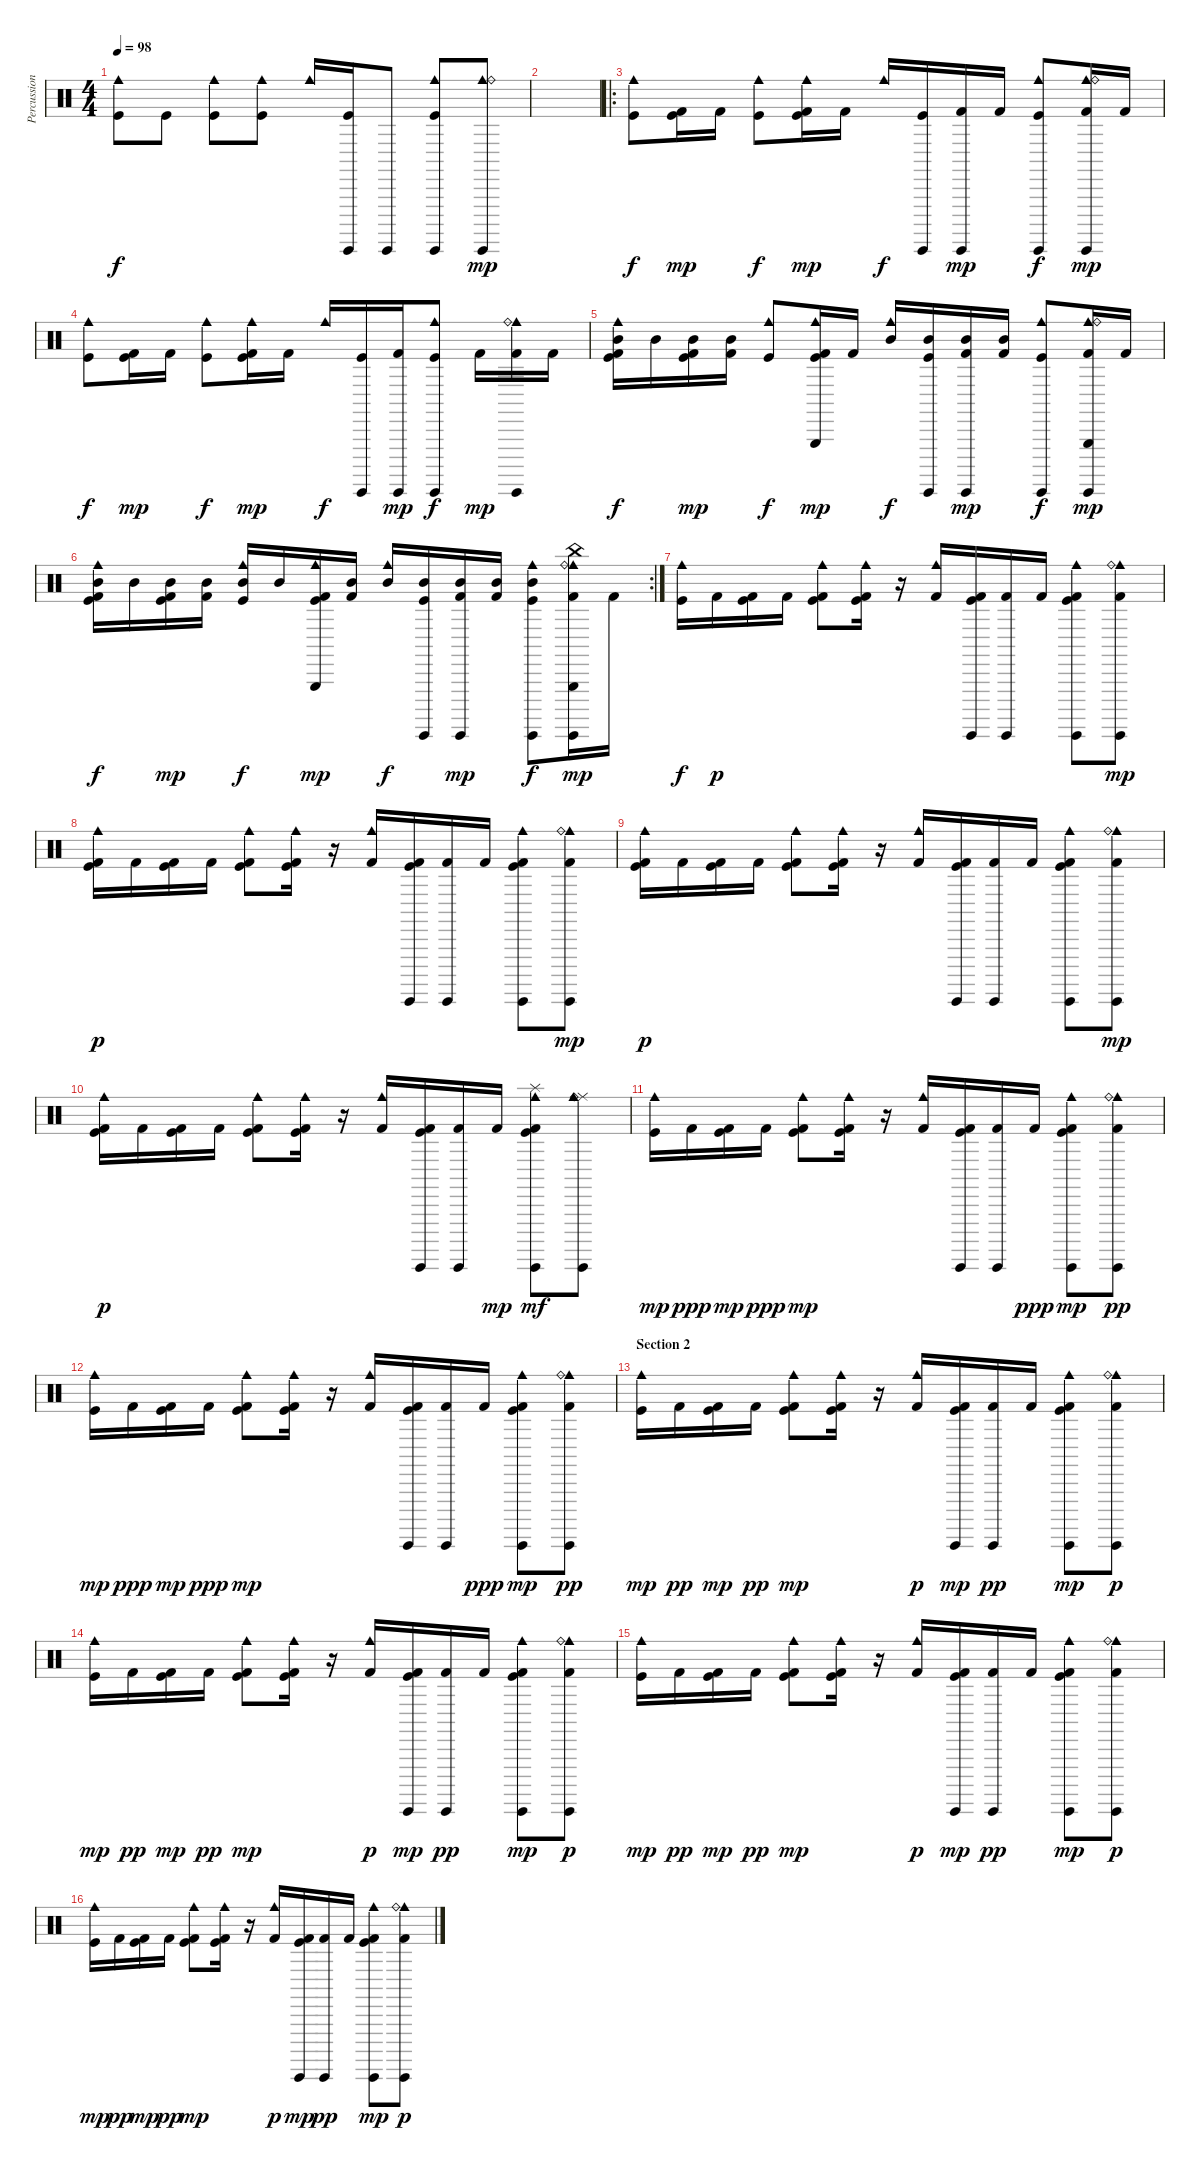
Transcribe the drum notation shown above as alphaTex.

\track ("Percussion" "Percussion") {instrument percussion}
\staff {score}
\articulation defaults
\ts (4 4)
\tempo 98
\clef neutral
\ks c
("Cowbell medium (hit)" "Kick (hit)").8{dy f} "Kick (hit)".8 ("Cowbell medium (hit)" "Kick (hit)").8 ("Cowbell medium (hit)" "Kick (hit)").8 "Cowbell medium (hit)".16 ("Guiro (hit)" "Kick (hit)").16 "Guiro (hit)".8 ("Cowbell medium (hit)" "Guiro (hit)" "Kick (hit)").8 ("Cowbell medium (hit)" "Guiro (hit)" "Ride (bell)").8{dy mp} |
|
\ro
("Cowbell medium (hit)" "Kick (hit)").8{dy f} ("Kick (hit) 2" "Kick (hit)").16{dy mp} "Kick (hit) 2".16 ("Cowbell medium (hit)" "Kick (hit)").8{dy f} ("Kick (hit) 2" "Cowbell medium (hit)" "Kick (hit)").16{dy mp} "Kick (hit) 2".16 "Cowbell medium (hit)".16{dy f} ("Guiro (hit)" "Kick (hit)").16 ("Kick (hit) 2" "Guiro (hit)").16{dy mp} "Kick (hit) 2".16 ("Cowbell medium (hit)" "Guiro (hit)" "Kick (hit)").8{dy f} ("Kick (hit) 2" "Cowbell medium (hit)" "Guiro (hit)" "Ride (bell)").16{dy mp} "Kick (hit) 2".16 |
("Cowbell medium (hit)" "Kick (hit)").8{dy f} ("Kick (hit) 2" "Kick (hit)").16{dy mp} "Kick (hit) 2".16 ("Cowbell medium (hit)" "Kick (hit)").8{dy f} ("Kick (hit) 2" "Cowbell medium (hit)" "Kick (hit)").16{dy mp} "Kick (hit) 2".16 "Cowbell medium (hit)".16{dy f} ("Guiro (hit)" "Kick (hit)").16 ("Kick (hit) 2" "Guiro (hit)").16{dy mp} ("Cowbell medium (hit)" "Guiro (hit)" "Kick (hit)").8{dy f} "Kick (hit) 2".16{dy mp} ("Kick (hit) 2" "Cowbell medium (hit)" "Guiro (hit)" "Ride (bell)").16 "Kick (hit) 2".16 |
("Kick (hit) 2" "Mid Tom (hit)" "Cowbell medium (hit)" "Kick (hit)").16{dy f} "Mid Tom (hit)".16 ("Kick (hit) 2" "Mid Tom (hit)" "Kick (hit)").16{dy mp} ("Kick (hit) 2" "Mid Tom (hit)").16 ("Cowbell medium (hit)" "Kick (hit)").8{dy f} ("Kick (hit) 2" "Triangle (hit)" "Cowbell medium (hit)" "Kick (hit)").16{dy mp} "Kick (hit) 2".16 ("Mid Tom (hit)" "Cowbell medium (hit)").16{dy f} ("Mid Tom (hit)" "Guiro (hit)" "Kick (hit)").16 ("Kick (hit) 2" "Mid Tom (hit)" "Guiro (hit)").16{dy mp} ("Kick (hit) 2" "Mid Tom (hit)").16 ("Cowbell medium (hit)" "Guiro (hit)" "Kick (hit)").8{dy f} ("Kick (hit) 2" "Triangle (hit)" "Cowbell medium (hit)" "Guiro (hit)" "Ride (bell)").16{dy mp} "Kick (hit) 2".16 |
\rc 2
("Kick (hit) 2" "Mid Tom (hit)" "Cowbell medium (hit)" "Kick (hit)").16{dy f} "Mid Tom (hit)".16 ("Kick (hit) 2" "Mid Tom (hit)" "Kick (hit)").16{dy mp} ("Kick (hit) 2" "Mid Tom (hit)").16 ("Mid Tom (hit)" "Cowbell medium (hit)" "Kick (hit)").16{dy f} "Mid Tom (hit)".16 ("Kick (hit) 2" "Triangle (hit)" "Cowbell medium (hit)" "Kick (hit)").16{dy mp} ("Kick (hit) 2" "Mid Tom (hit)").16 ("Mid Tom (hit)" "Cowbell medium (hit)").16{dy f} ("Mid Tom (hit)" "Guiro (hit)" "Kick (hit)").16 ("Kick (hit) 2" "Mid Tom (hit)" "Guiro (hit)").16{dy mp} ("Kick (hit) 2" "Mid Tom (hit)").16 ("Mid Tom (hit)" "Cowbell medium (hit)" "Guiro (hit)" "Kick (hit)").8{dy f} ("China (hit)" "Kick (hit) 2" "Triangle (hit)" "Cowbell medium (hit)" "Guiro (hit)" "Ride (bell)").16{dy mp} "Kick (hit) 2".16 |
("Cowbell medium (hit)" "Kick (hit)").16{dy f} "Kick (hit) 2".16{dy p} ("Kick (hit) 2" "Kick (hit)").16 "Kick (hit) 2".16 ("Kick (hit) 2" "Cowbell medium (hit)" "Kick (hit)").8 ("Kick (hit) 2" "Cowbell medium (hit)" "Kick (hit)").16 r.16 ("Kick (hit) 2" "Cowbell medium (hit)").16 ("Kick (hit) 2" "Guiro (hit)" "Kick (hit)").16 ("Kick (hit) 2" "Guiro (hit)").16 "Kick (hit) 2".16 ("Kick (hit) 2" "Cowbell medium (hit)" "Guiro (hit)" "Kick (hit)").8 ("Kick (hit) 2" "Cowbell medium (hit)" "Guiro (hit)" "Ride (bell)").8{dy mp} |
("Kick (hit) 2" "Cowbell medium (hit)" "Kick (hit)").16{dy p} "Kick (hit) 2".16 ("Kick (hit) 2" "Kick (hit)").16 "Kick (hit) 2".16 ("Kick (hit) 2" "Cowbell medium (hit)" "Kick (hit)").8 ("Kick (hit) 2" "Cowbell medium (hit)" "Kick (hit)").16 r.16 ("Kick (hit) 2" "Cowbell medium (hit)").16 ("Kick (hit) 2" "Guiro (hit)" "Kick (hit)").16 ("Kick (hit) 2" "Guiro (hit)").16 "Kick (hit) 2".16 ("Kick (hit) 2" "Cowbell medium (hit)" "Guiro (hit)" "Kick (hit)").8 ("Kick (hit) 2" "Cowbell medium (hit)" "Guiro (hit)" "Ride (bell)").8{dy mp} |
("Kick (hit) 2" "Cowbell medium (hit)" "Kick (hit)").16{dy p} "Kick (hit) 2".16 ("Kick (hit) 2" "Kick (hit)").16 "Kick (hit) 2".16 ("Kick (hit) 2" "Cowbell medium (hit)" "Kick (hit)").8 ("Kick (hit) 2" "Cowbell medium (hit)" "Kick (hit)").16 r.16 ("Kick (hit) 2" "Cowbell medium (hit)").16 ("Kick (hit) 2" "Guiro (hit)" "Kick (hit)").16 ("Kick (hit) 2" "Guiro (hit)").16 "Kick (hit) 2".16 ("Kick (hit) 2" "Cowbell medium (hit)" "Guiro (hit)" "Kick (hit)").8 ("Kick (hit) 2" "Cowbell medium (hit)" "Guiro (hit)" "Ride (bell)").8{dy mp} |
("Kick (hit) 2" "Cowbell medium (hit)" "Kick (hit)").16{dy p} "Kick (hit) 2".16 ("Kick (hit) 2" "Kick (hit)").16 "Kick (hit) 2".16 ("Kick (hit) 2" "Cowbell medium (hit)" "Kick (hit)").8 ("Kick (hit) 2" "Cowbell medium (hit)" "Kick (hit)").16 r.16 ("Kick (hit) 2" "Cowbell medium (hit)").16 ("Kick (hit) 2" "Guiro (hit)" "Kick (hit)").16 ("Kick (hit) 2" "Guiro (hit)").16 "Kick (hit) 2".16{dy mp} ("Kick (hit) 2" "Splash (hit)" "Cowbell medium (hit)" "Guiro (hit)" "Kick (hit)").8{dy mf} ("Ride (middle)" "Cowbell medium (hit)" "Guiro (hit)" "Ride (bell)").8 |
("Cowbell medium (hit)" "Kick (hit)").16{dy mp} "Kick (hit) 2".16{dy ppp} ("Kick (hit) 2" "Kick (hit)").16{dy mp} "Kick (hit) 2".16{dy ppp} ("Kick (hit) 2" "Cowbell medium (hit)" "Kick (hit)").8{dy mp} ("Kick (hit) 2" "Cowbell medium (hit)" "Kick (hit)").16 r.16 ("Kick (hit) 2" "Cowbell medium (hit)").16 ("Kick (hit) 2" "Guiro (hit)" "Kick (hit)").16 ("Kick (hit) 2" "Guiro (hit)").16 "Kick (hit) 2".16{dy ppp} ("Kick (hit) 2" "Cowbell medium (hit)" "Guiro (hit)" "Kick (hit)").8{dy mp} ("Kick (hit) 2" "Cowbell medium (hit)" "Guiro (hit)" "Ride (bell)").8{dy pp} |
("Cowbell medium (hit)" "Kick (hit)").16{dy mp} "Kick (hit) 2".16{dy ppp} ("Kick (hit) 2" "Kick (hit)").16{dy mp} "Kick (hit) 2".16{dy ppp} ("Kick (hit) 2" "Cowbell medium (hit)" "Kick (hit)").8{dy mp} ("Kick (hit) 2" "Cowbell medium (hit)" "Kick (hit)").16 r.16 ("Kick (hit) 2" "Cowbell medium (hit)").16 ("Kick (hit) 2" "Guiro (hit)" "Kick (hit)").16 ("Kick (hit) 2" "Guiro (hit)").16 "Kick (hit) 2".16{dy ppp} ("Kick (hit) 2" "Cowbell medium (hit)" "Guiro (hit)" "Kick (hit)").8{dy mp} ("Kick (hit) 2" "Cowbell medium (hit)" "Guiro (hit)" "Ride (bell)").8{dy pp} |
\section ("" "Section 2")
("Cowbell medium (hit)" "Kick (hit)").16{dy mp} "Kick (hit) 2".16{dy pp} ("Kick (hit) 2" "Kick (hit)").16{dy mp} "Kick (hit) 2".16{dy pp} ("Kick (hit) 2" "Cowbell medium (hit)" "Kick (hit)").8{dy mp} ("Kick (hit) 2" "Cowbell medium (hit)" "Kick (hit)").16 r.16 ("Kick (hit) 2" "Cowbell medium (hit)").16{dy p} ("Kick (hit) 2" "Guiro (hit)" "Kick (hit)").16{dy mp} ("Kick (hit) 2" "Guiro (hit)").16{dy pp} "Kick (hit) 2".16 ("Kick (hit) 2" "Cowbell medium (hit)" "Guiro (hit)" "Kick (hit)").8{dy mp} ("Kick (hit) 2" "Cowbell medium (hit)" "Guiro (hit)" "Ride (bell)").8{dy p} |
("Cowbell medium (hit)" "Kick (hit)").16{dy mp} "Kick (hit) 2".16{dy pp} ("Kick (hit) 2" "Kick (hit)").16{dy mp} "Kick (hit) 2".16{dy pp} ("Kick (hit) 2" "Cowbell medium (hit)" "Kick (hit)").8{dy mp} ("Kick (hit) 2" "Cowbell medium (hit)" "Kick (hit)").16 r.16 ("Kick (hit) 2" "Cowbell medium (hit)").16{dy p} ("Kick (hit) 2" "Guiro (hit)" "Kick (hit)").16{dy mp} ("Kick (hit) 2" "Guiro (hit)").16{dy pp} "Kick (hit) 2".16 ("Kick (hit) 2" "Cowbell medium (hit)" "Guiro (hit)" "Kick (hit)").8{dy mp} ("Kick (hit) 2" "Cowbell medium (hit)" "Guiro (hit)" "Ride (bell)").8{dy p} |
("Cowbell medium (hit)" "Kick (hit)").16{dy mp} "Kick (hit) 2".16{dy pp} ("Kick (hit) 2" "Kick (hit)").16{dy mp} "Kick (hit) 2".16{dy pp} ("Kick (hit) 2" "Cowbell medium (hit)" "Kick (hit)").8{dy mp} ("Kick (hit) 2" "Cowbell medium (hit)" "Kick (hit)").16 r.16 ("Kick (hit) 2" "Cowbell medium (hit)").16{dy p} ("Kick (hit) 2" "Guiro (hit)" "Kick (hit)").16{dy mp} ("Kick (hit) 2" "Guiro (hit)").16{dy pp} "Kick (hit) 2".16 ("Kick (hit) 2" "Cowbell medium (hit)" "Guiro (hit)" "Kick (hit)").8{dy mp} ("Kick (hit) 2" "Cowbell medium (hit)" "Guiro (hit)" "Ride (bell)").8{dy p} |
("Cowbell medium (hit)" "Kick (hit)").16{dy mp} "Kick (hit) 2".16{dy pp} ("Kick (hit) 2" "Kick (hit)").16{dy mp} "Kick (hit) 2".16{dy pp} ("Kick (hit) 2" "Cowbell medium (hit)" "Kick (hit)").8{dy mp} ("Kick (hit) 2" "Cowbell medium (hit)" "Kick (hit)").16 r.16 ("Kick (hit) 2" "Cowbell medium (hit)").16{dy p} ("Kick (hit) 2" "Guiro (hit)" "Kick (hit)").16{dy mp} ("Kick (hit) 2" "Guiro (hit)").16{dy pp} "Kick (hit) 2".16 ("Kick (hit) 2" "Cowbell medium (hit)" "Guiro (hit)" "Kick (hit)").8{dy mp} ("Kick (hit) 2" "Cowbell medium (hit)" "Guiro (hit)" "Ride (bell)").8{dy p}
